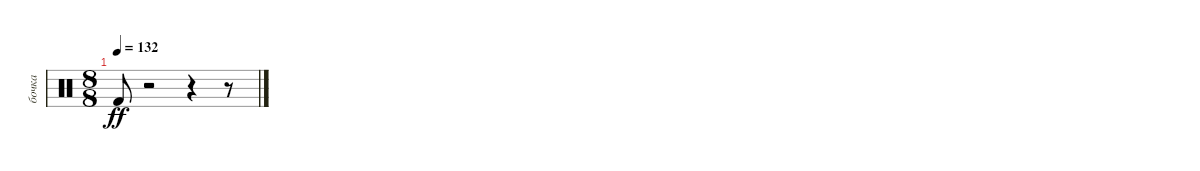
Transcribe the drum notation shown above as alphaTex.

\track ("бочка" "бочка") {instrument percussion}
\staff {score}
\articulation defaults
\ts (8 8)
\tempo 132
\clef neutral
\ks c "Kick (hit) 2".8{dy ff volume 3}
r.2 r.4 r.8
